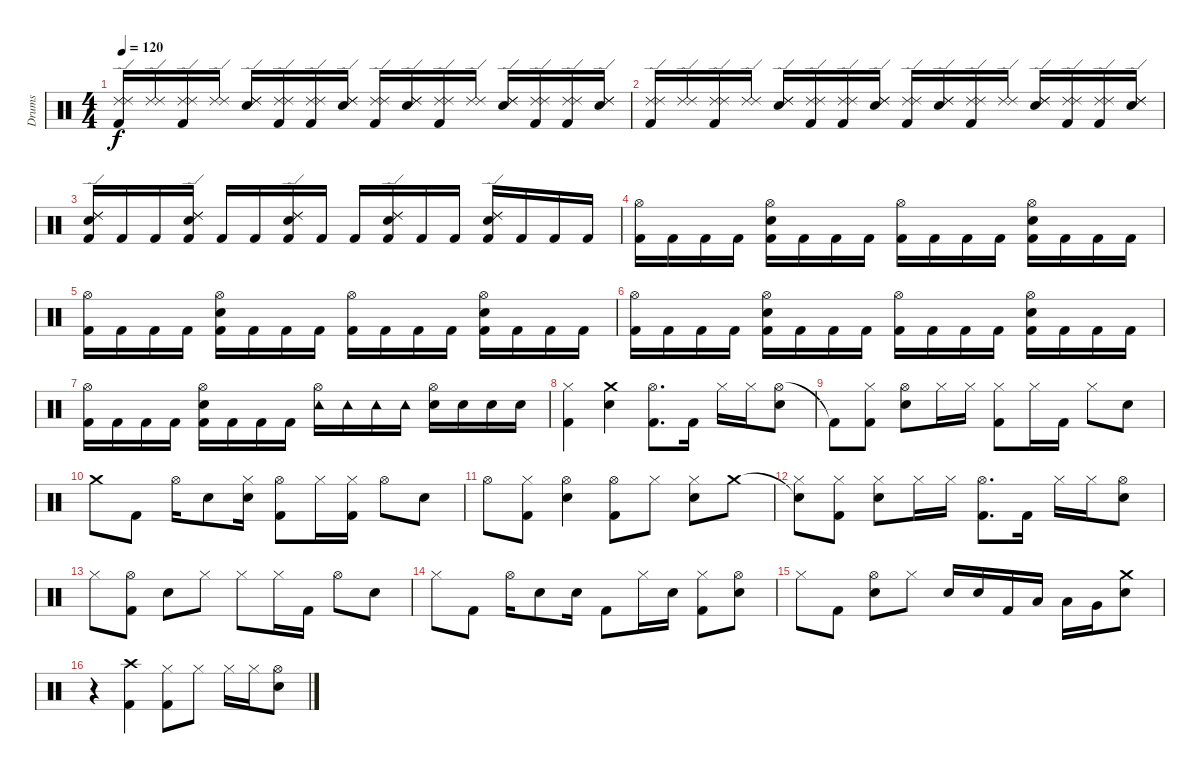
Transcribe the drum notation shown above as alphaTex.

\track ("Drums" "Drums") {instrument percussion}
\staff {score}
\articulation defaults
\ts (4 4)
\tempo 120
\clef neutral
\ks c
("Kick (hit) 2" "Ride (edge) 2" "Ride (edge) 2").16{dy f} ("Ride (edge) 2" "Ride (edge) 2").16 ("Kick (hit) 2" "Ride (edge) 2" "Ride (edge) 2").16 ("Ride (edge) 2" "Ride (edge) 2").16 ("Electric Snare (hit)" "Ride (edge) 2" "Ride (edge) 2").16 ("Kick (hit) 2" "Ride (edge) 2" "Ride (edge) 2").16 ("Kick (hit) 2" "Ride (edge) 2" "Ride (edge) 2").16 ("Ride (edge) 2" "Ride (edge) 2" "Electric Snare (hit)").16 ("Kick (hit) 2" "Ride (edge) 2" "Ride (edge) 2").16 ("Ride (edge) 2" "Ride (edge) 2" "Electric Snare (hit)").16 ("Kick (hit) 2" "Ride (edge) 2" "Ride (edge) 2").16 ("Ride (edge) 2" "Ride (edge) 2").16 ("Electric Snare (hit)" "Ride (edge) 2" "Ride (edge) 2").16 ("Kick (hit) 2" "Ride (edge) 2" "Ride (edge) 2").16 ("Kick (hit) 2" "Ride (edge) 2" "Ride (edge) 2").16 ("Ride (edge) 2" "Ride (edge) 2" "Electric Snare (hit)").16 |
("Kick (hit) 2" "Ride (edge) 2" "Ride (edge) 2").16 ("Ride (edge) 2" "Ride (edge) 2").16 ("Kick (hit) 2" "Ride (edge) 2" "Ride (edge) 2").16 ("Ride (edge) 2" "Ride (edge) 2").16 ("Electric Snare (hit)" "Ride (edge) 2" "Ride (edge) 2").16 ("Kick (hit) 2" "Ride (edge) 2" "Ride (edge) 2").16 ("Kick (hit) 2" "Ride (edge) 2" "Ride (edge) 2").16 ("Ride (edge) 2" "Ride (edge) 2" "Electric Snare (hit)").16 ("Kick (hit) 2" "Ride (edge) 2" "Ride (edge) 2").16 ("Ride (edge) 2" "Ride (edge) 2" "Electric Snare (hit)").16 ("Kick (hit) 2" "Ride (edge) 2" "Ride (edge) 2").16 ("Ride (edge) 2" "Ride (edge) 2").16 ("Electric Snare (hit)" "Ride (edge) 2" "Ride (edge) 2").16 ("Kick (hit) 2" "Ride (edge) 2" "Ride (edge) 2").16 ("Kick (hit) 2" "Ride (edge) 2" "Ride (edge) 2").16 ("Ride (edge) 2" "Ride (edge) 2" "Electric Snare (hit)").16 |
("Kick (hit) 2" "Ride (edge) 2" "Ride (edge) 2" "Electric Snare (hit)").16 "Kick (hit) 2".16 "Kick (hit) 2".16 ("Kick (hit) 2" "Ride (edge) 2" "Ride (edge) 2" "Electric Snare (hit)").16 "Kick (hit) 2".16 "Kick (hit) 2".16 ("Kick (hit) 2" "Ride (edge) 2" "Ride (edge) 2" "Electric Snare (hit)").16 "Kick (hit) 2".16 "Kick (hit) 2".16 ("Kick (hit) 2" "Ride (edge) 2" "Ride (edge) 2" "Electric Snare (hit)").16 "Kick (hit) 2".16 "Kick (hit) 2".16 ("Kick (hit) 2" "Electric Snare (hit)" "Ride (edge) 2" "Ride (edge) 2").16 "Kick (hit) 2".16 "Kick (hit) 2".16 "Kick (hit) 2".16 |
("Kick (hit) 2" "Hi-Hat (open)").16 "Kick (hit) 2".16 "Kick (hit) 2".16 "Kick (hit) 2".16 ("Kick (hit) 2" "Electric Snare (hit)" "Hi-Hat (open)").16 "Kick (hit) 2".16 "Kick (hit) 2".16 "Kick (hit) 2".16 ("Kick (hit) 2" "Hi-Hat (open)").16 "Kick (hit) 2".16 "Kick (hit) 2".16 "Kick (hit) 2".16 ("Kick (hit) 2" "Electric Snare (hit)" "Hi-Hat (open)").16 "Kick (hit) 2".16 "Kick (hit) 2".16 "Kick (hit) 2".16 |
("Kick (hit) 2" "Hi-Hat (open)").16 "Kick (hit) 2".16 "Kick (hit) 2".16 "Kick (hit) 2".16 ("Kick (hit) 2" "Electric Snare (hit)" "Hi-Hat (open)").16 "Kick (hit) 2".16 "Kick (hit) 2".16 "Kick (hit) 2".16 ("Kick (hit) 2" "Hi-Hat (open)").16 "Kick (hit) 2".16 "Kick (hit) 2".16 "Kick (hit) 2".16 ("Kick (hit) 2" "Electric Snare (hit)" "Hi-Hat (open)").16 "Kick (hit) 2".16 "Kick (hit) 2".16 "Kick (hit) 2".16 |
("Kick (hit) 2" "Hi-Hat (open)").16 "Kick (hit) 2".16 "Kick (hit) 2".16 "Kick (hit) 2".16 ("Kick (hit) 2" "Electric Snare (hit)" "Hi-Hat (open)").16 "Kick (hit) 2".16 "Kick (hit) 2".16 "Kick (hit) 2".16 ("Kick (hit) 2" "Hi-Hat (open)").16 "Kick (hit) 2".16 "Kick (hit) 2".16 "Kick (hit) 2".16 ("Kick (hit) 2" "Electric Snare (hit)" "Hi-Hat (open)").16 "Kick (hit) 2".16 "Kick (hit) 2".16 "Kick (hit) 2".16 |
("Kick (hit) 2" "Hi-Hat (open)").16 "Kick (hit) 2".16 "Kick (hit) 2".16 "Kick (hit) 2".16 ("Kick (hit) 2" "Electric Snare (hit)" "Hi-Hat (open)").16 "Kick (hit) 2".16 "Kick (hit) 2".16 "Kick (hit) 2".16 ("Tambourine (hit)" "Hi-Hat (open)").16 "Tambourine (hit)".16 "Tambourine (hit)".16 "Tambourine (hit)".16 ("Electric Snare (hit)" "Hi-Hat (open)").16 "Electric Snare (hit)".16 "Electric Snare (hit)".16 "Electric Snare (hit)".16 |
("Hi-Hat (closed)" "Kick (hit) 2").4 ("Crash medium (hit)" "Electric Snare (hit)").4 ("Hi-Hat (open)" "Kick (hit) 2").8{d} "Kick (hit) 2".16 "Hi-Hat (closed)".16 "Hi-Hat (closed)".16 ("Hi-Hat (open)" "Electric Snare (hit)").8 |
"Kick (hit) 2"{t}.8 ("Hi-Hat (closed)" "Kick (hit) 2").8 ("Hi-Hat (open)" "Electric Snare (hit)").8 "Hi-Hat (closed)".16 "Hi-Hat (closed)".16 ("Hi-Hat (closed)" "Kick (hit) 2").8 "Hi-Hat (closed)".16 "Kick (hit) 2".16 "Hi-Hat (closed)".8 "Electric Snare (hit)".8 |
"Crash medium (hit)".8 "Kick (hit) 2".8 "Hi-Hat (open)".16 "Electric Snare (hit)".8 ("Electric Snare (hit)" "Hi-Hat (closed)").16 ("Kick (hit) 2" "Hi-Hat (open)").8 "Hi-Hat (closed)".16 ("Kick (hit) 2" "Hi-Hat (closed)").16 "Hi-Hat (open)".8 "Electric Snare (hit)".8 |
"Hi-Hat (open)".8 ("Kick (hit) 2" "Hi-Hat (closed)").8 ("Hi-Hat (open)" "Electric Snare (hit)").4 ("Kick (hit) 2" "Hi-Hat (open)").8 "Hi-Hat (closed)".8 ("Hi-Hat (closed)" "Electric Snare (hit)").8 "Crash medium (hit)".8 |
("Snare (hit)"{t} "Hi-Hat (closed)").8 ("Hi-Hat (closed)" "Kick (hit) 2").8 ("Hi-Hat (closed)" "Electric Snare (hit)").8 "Hi-Hat (closed)".16 "Hi-Hat (closed)".16 ("Hi-Hat (open)" "Kick (hit) 2").8{d} "Kick (hit) 2".16 "Hi-Hat (closed)".16 "Hi-Hat (closed)".16 ("Hi-Hat (open)" "Electric Snare (hit)").8 |
"Hi-Hat (closed)".8 ("Hi-Hat (open)" "Kick (hit) 2").8 "Electric Snare (hit)".8 "Hi-Hat (closed)".8 "Hi-Hat (closed)".8 "Hi-Hat (closed)".16 "Kick (hit) 2".16 "Hi-Hat (open)".8 "Electric Snare (hit)".8 |
"Hi-Hat (closed)".8 "Kick (hit) 2".8 "Hi-Hat (open)".16 "Electric Snare (hit)".8 "Electric Snare (hit)".16 "Kick (hit) 2".8 "Hi-Hat (closed)".16 "Electric Snare (hit)".16 ("Kick (hit) 2" "Hi-Hat (closed)").8 ("Hi-Hat (open)" "Electric Snare (hit)").8 |
"Hi-Hat (closed)".8 "Kick (hit) 2".8 ("Electric Snare (hit)" "Hi-Hat (open)").8 "Hi-Hat (closed)".8 "Electric Snare (hit)".16 "Electric Snare (hit)".16 "Kick (hit) 2".16 "Low Tom (hit)".16 "Low Tom (hit)".16 "Very Low Tom (hit)".16 ("Electric Snare (hit)" "Crash medium (hit)").8 |
r.4 ("Crash high (hit)" "Kick (hit) 2").4 ("Hi-Hat (closed)" "Kick (hit) 2").8 "Hi-Hat (closed)".8 "Hi-Hat (closed)".16 "Hi-Hat (closed)".16 ("Electric Snare (hit)" "Hi-Hat (open)").8
